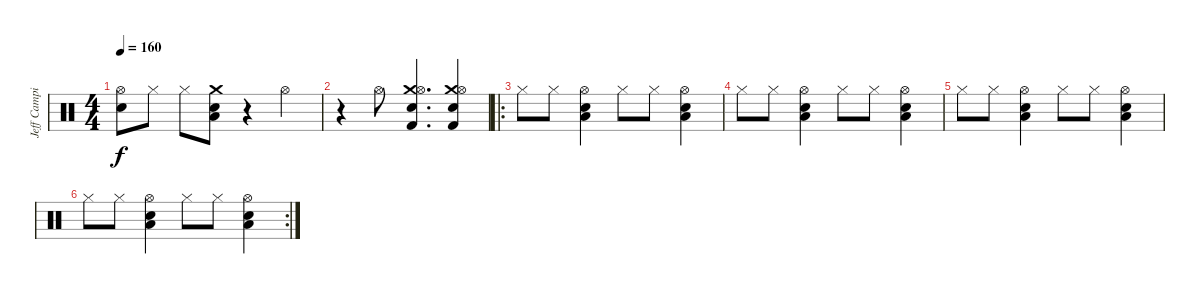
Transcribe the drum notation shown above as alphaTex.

\track ("Jeff Campitelli" "Jeff Campi") {instrument percussion}
\staff {score}
\articulation defaults
\ts (4 4)
\tempo 160
\clef neutral
\ks c
("Snare (hit) 2" "Hi-Hat (open)").8{dy f} "Hi-Hat (closed)".8 "Hi-Hat (closed)".8 ("Crash medium (hit)" "Snare (hit) 2" "Low Floor Tom (hit)").8 r.4 "Hi-Hat (open)".4 |
r.4 "Hi-Hat (open)".8 ("Crash medium (hit)" "Kick (hit) 2" "Hi-Hat (open)" "Snare (hit) 2").4{d} ("Crash medium (hit)" "Kick (hit) 2" "Hi-Hat (open)" "Snare (hit) 2").4 |
\ro "Hi-Hat (closed)".8 "Hi-Hat (closed)".8
("Low Floor Tom (hit)" "Snare (hit) 2" "Hi-Hat (open)").4 "Hi-Hat (closed)".8 "Hi-Hat (closed)".8 ("Low Floor Tom (hit)" "Snare (hit) 2" "Hi-Hat (open)").4 |
"Hi-Hat (closed)".8 "Hi-Hat (closed)".8 ("Low Floor Tom (hit)" "Snare (hit) 2" "Hi-Hat (open)").4 "Hi-Hat (closed)".8 "Hi-Hat (closed)".8 ("Low Floor Tom (hit)" "Snare (hit) 2" "Hi-Hat (open)").4 |
"Hi-Hat (closed)".8 "Hi-Hat (closed)".8 ("Low Floor Tom (hit)" "Snare (hit) 2" "Hi-Hat (open)").4 "Hi-Hat (closed)".8 "Hi-Hat (closed)".8 ("Low Floor Tom (hit)" "Snare (hit) 2" "Hi-Hat (open)").4 |
\rc 2 "Hi-Hat (closed)".8 "Hi-Hat (closed)".8
("Low Floor Tom (hit)" "Snare (hit) 2" "Hi-Hat (open)").4 "Hi-Hat (closed)".8 "Hi-Hat (closed)".8 ("Low Floor Tom (hit)" "Snare (hit) 2" "Hi-Hat (open)").4
